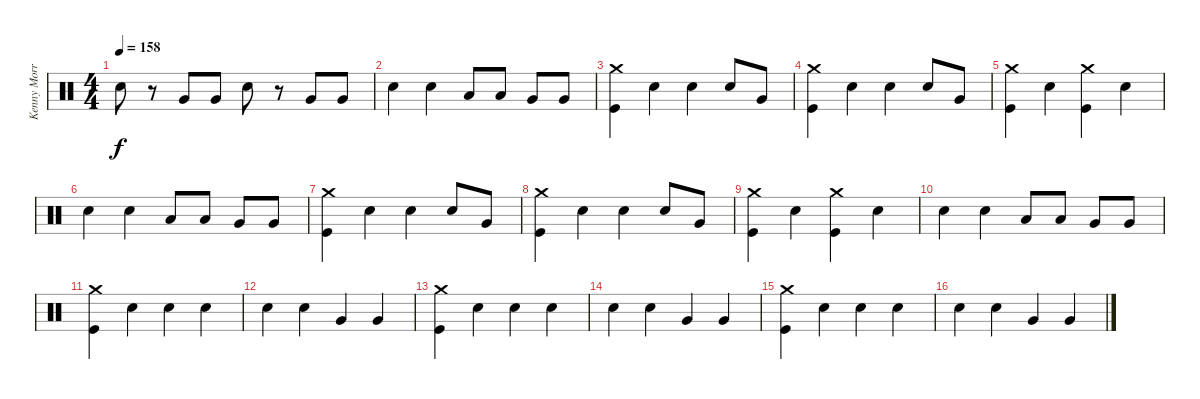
\track ("Kenny Morris" "Kenny Morr") {instrument percussion}
\staff {score}
\articulation defaults
\ts (4 4)
\tempo 158
\clef neutral
\ks c "Snare (hit) 2".8{dy f}
r.8 "Very Low Tom (hit)".8 "Very Low Tom (hit)".8 "Snare (hit) 2".8 r.8 "Very Low Tom (hit)".8 "Very Low Tom (hit)".8 |
"Snare (hit) 2".4 "Snare (hit) 2".4 "Low Tom (hit)".8 "Low Tom (hit)".8 "Very Low Tom (hit)".8 "Very Low Tom (hit)".8 |
("Crash medium (hit)" "Kick (hit)").4 "Snare (hit) 2".4 "Snare (hit) 2".4 "Snare (hit) 2".8 "Very Low Tom (hit)".8 |
("Crash medium (hit)" "Kick (hit)").4 "Snare (hit) 2".4 "Snare (hit) 2".4 "Snare (hit) 2".8 "Very Low Tom (hit)".8 |
("Crash medium (hit)" "Kick (hit)").4 "Snare (hit) 2".4 ("Crash medium (hit)" "Kick (hit)").4 "Snare (hit) 2".4 |
"Snare (hit) 2".4 "Snare (hit) 2".4 "Low Tom (hit)".8 "Low Tom (hit)".8 "Very Low Tom (hit)".8 "Very Low Tom (hit)".8 |
("Crash medium (hit)" "Kick (hit)").4 "Snare (hit) 2".4 "Snare (hit) 2".4 "Snare (hit) 2".8 "Very Low Tom (hit)".8 |
("Crash medium (hit)" "Kick (hit)").4 "Snare (hit) 2".4 "Snare (hit) 2".4 "Snare (hit) 2".8 "Very Low Tom (hit)".8 |
("Crash medium (hit)" "Kick (hit)").4 "Snare (hit) 2".4 ("Crash medium (hit)" "Kick (hit)").4 "Snare (hit) 2".4 |
"Snare (hit) 2".4 "Snare (hit) 2".4 "Low Tom (hit)".8 "Low Tom (hit)".8 "Very Low Tom (hit)".8 "Very Low Tom (hit)".8 |
("Crash medium (hit)" "Kick (hit)").4 "Snare (hit) 2".4 "Snare (hit) 2".4 "Snare (hit) 2".4 |
"Snare (hit) 2".4 "Snare (hit) 2".4 "Very Low Tom (hit)".4 "Very Low Tom (hit)".4 |
("Crash medium (hit)" "Kick (hit)").4 "Snare (hit) 2".4 "Snare (hit) 2".4 "Snare (hit) 2".4 |
"Snare (hit) 2".4 "Snare (hit) 2".4 "Very Low Tom (hit)".4 "Very Low Tom (hit)".4 |
("Crash medium (hit)" "Kick (hit)").4 "Snare (hit) 2".4 "Snare (hit) 2".4 "Snare (hit) 2".4 |
"Snare (hit) 2".4 "Snare (hit) 2".4 "Very Low Tom (hit)".4 "Very Low Tom (hit)".4
